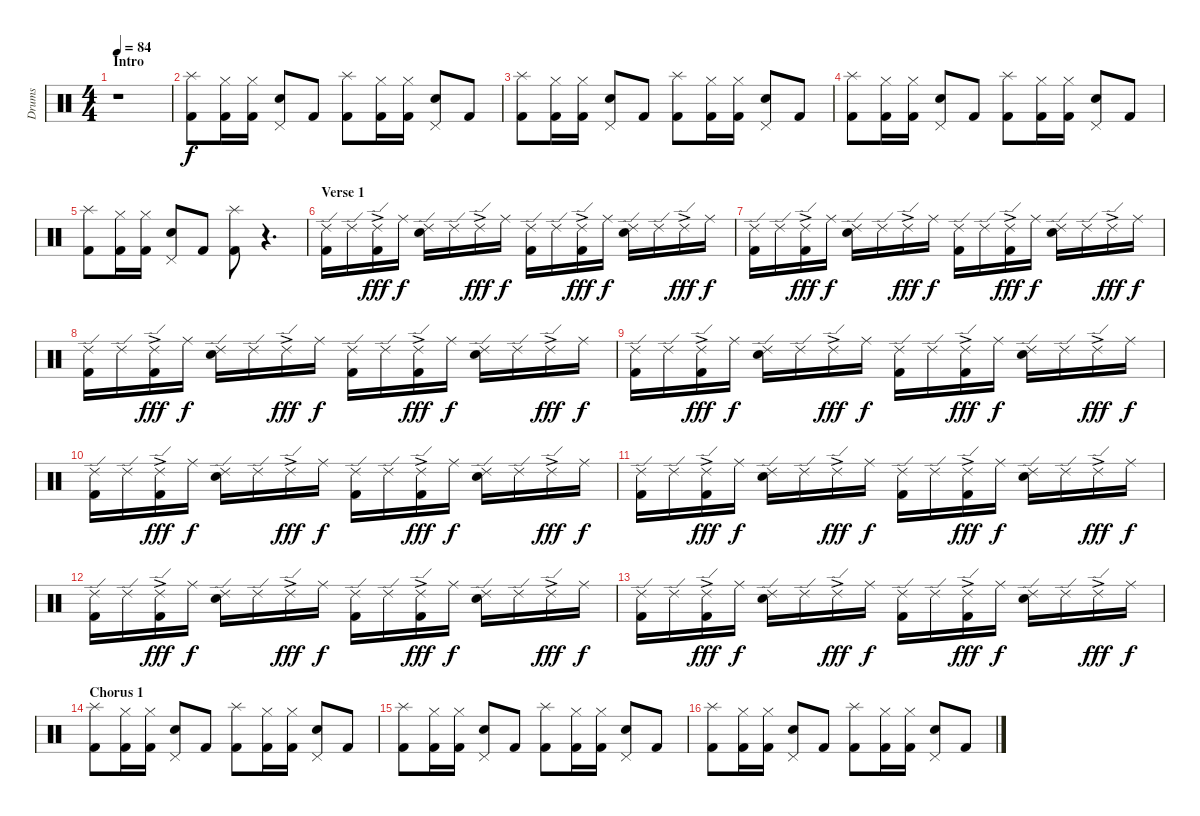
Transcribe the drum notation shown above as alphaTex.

\track ("Drums" "Drums") {instrument percussion}
\staff {score}
\articulation defaults
\ts (4 4)
\section ("" "Intro")
\tempo 84
\clef neutral
\ks c
r.1{dy f} |
("Splash (hit)" "Kick (hit) 2").8 ("Hi-Hat (closed)" "Kick (hit) 2").16 ("Hi-Hat (closed)" "Kick (hit) 2").16 ("Pedal Hi-Hat (hit)" "Snare (hit) 2").8 "Kick (hit) 2".8 ("Splash (hit)" "Kick (hit) 2").8 ("Hi-Hat (closed)" "Kick (hit) 2").16 ("Hi-Hat (closed)" "Kick (hit) 2").16 ("Pedal Hi-Hat (hit)" "Snare (hit) 2").8 "Kick (hit) 2".8 |
("Splash (hit)" "Kick (hit) 2").8 ("Hi-Hat (closed)" "Kick (hit) 2").16 ("Hi-Hat (closed)" "Kick (hit) 2").16 ("Pedal Hi-Hat (hit)" "Snare (hit) 2").8 "Kick (hit) 2".8 ("Splash (hit)" "Kick (hit) 2").8 ("Hi-Hat (closed)" "Kick (hit) 2").16 ("Hi-Hat (closed)" "Kick (hit) 2").16 ("Pedal Hi-Hat (hit)" "Snare (hit) 2").8 "Kick (hit) 2".8 |
("Splash (hit)" "Kick (hit) 2").8 ("Hi-Hat (closed)" "Kick (hit) 2").16 ("Hi-Hat (closed)" "Kick (hit) 2").16 ("Pedal Hi-Hat (hit)" "Snare (hit) 2").8 "Kick (hit) 2".8 ("Splash (hit)" "Kick (hit) 2").8 ("Hi-Hat (closed)" "Kick (hit) 2").16 ("Hi-Hat (closed)" "Kick (hit) 2").16 ("Pedal Hi-Hat (hit)" "Snare (hit) 2").8 "Kick (hit) 2".8 |
("Splash (hit)" "Kick (hit) 2").8 ("Hi-Hat (closed)" "Kick (hit) 2").16 ("Hi-Hat (closed)" "Kick (hit) 2").16 ("Pedal Hi-Hat (hit)" "Snare (hit) 2").8 "Kick (hit) 2".8 ("Splash (hit)" "Kick (hit) 2").8 r.4{d} |
\section ("" "Verse 1")
("Ride (edge) 2" "Kick (hit) 2").16 "Ride (edge) 2".16 ("Ride (edge) 2"{ac} "Kick (hit) 2").16{dy fff} "Ride (middle)".16{dy f} ("Ride (edge) 2" "Snare (hit) 2").16 "Ride (edge) 2".16 "Ride (edge) 2"{ac}.16{dy fff} "Ride (middle)".16{dy f} ("Ride (edge) 2" "Kick (hit) 2").16 "Ride (edge) 2".16 ("Ride (edge) 2"{ac} "Kick (hit) 2").16{dy fff} "Ride (middle)".16{dy f} ("Ride (edge) 2" "Snare (hit) 2").16 "Ride (edge) 2".16 "Ride (edge) 2"{ac}.16{dy fff} "Ride (middle)".16{dy f} |
("Ride (edge) 2" "Kick (hit) 2").16 "Ride (edge) 2".16 ("Ride (edge) 2"{ac} "Kick (hit) 2").16{dy fff} "Ride (middle)".16{dy f} ("Ride (edge) 2" "Snare (hit) 2").16 "Ride (edge) 2".16 "Ride (edge) 2"{ac}.16{dy fff} "Ride (middle)".16{dy f} ("Ride (edge) 2" "Kick (hit) 2").16 "Ride (edge) 2".16 ("Ride (edge) 2"{ac} "Kick (hit) 2").16{dy fff} "Ride (middle)".16{dy f} ("Ride (edge) 2" "Snare (hit) 2").16 "Ride (edge) 2".16 "Ride (edge) 2"{ac}.16{dy fff} "Ride (middle)".16{dy f} |
("Ride (edge) 2" "Kick (hit) 2").16 "Ride (edge) 2".16 ("Ride (edge) 2"{ac} "Kick (hit) 2").16{dy fff} "Ride (middle)".16{dy f} ("Ride (edge) 2" "Snare (hit) 2").16 "Ride (edge) 2".16 "Ride (edge) 2"{ac}.16{dy fff} "Ride (middle)".16{dy f} ("Ride (edge) 2" "Kick (hit) 2").16 "Ride (edge) 2".16 ("Ride (edge) 2"{ac} "Kick (hit) 2").16{dy fff} "Ride (middle)".16{dy f} ("Ride (edge) 2" "Snare (hit) 2").16 "Ride (edge) 2".16 "Ride (edge) 2"{ac}.16{dy fff} "Ride (middle)".16{dy f} |
("Ride (edge) 2" "Kick (hit) 2").16 "Ride (edge) 2".16 ("Ride (edge) 2"{ac} "Kick (hit) 2").16{dy fff} "Ride (middle)".16{dy f} ("Ride (edge) 2" "Snare (hit) 2").16 "Ride (edge) 2".16 "Ride (edge) 2"{ac}.16{dy fff} "Ride (middle)".16{dy f} ("Ride (edge) 2" "Kick (hit) 2").16 "Ride (edge) 2".16 ("Ride (edge) 2"{ac} "Kick (hit) 2").16{dy fff} "Ride (middle)".16{dy f} ("Ride (edge) 2" "Snare (hit) 2").16 "Ride (edge) 2".16 "Ride (edge) 2"{ac}.16{dy fff} "Ride (middle)".16{dy f} |
("Ride (edge) 2" "Kick (hit) 2").16 "Ride (edge) 2".16 ("Ride (edge) 2"{ac} "Kick (hit) 2").16{dy fff} "Ride (middle)".16{dy f} ("Ride (edge) 2" "Snare (hit) 2").16 "Ride (edge) 2".16 "Ride (edge) 2"{ac}.16{dy fff} "Ride (middle)".16{dy f} ("Ride (edge) 2" "Kick (hit) 2").16 "Ride (edge) 2".16 ("Ride (edge) 2"{ac} "Kick (hit) 2").16{dy fff} "Ride (middle)".16{dy f} ("Ride (edge) 2" "Snare (hit) 2").16 "Ride (edge) 2".16 "Ride (edge) 2"{ac}.16{dy fff} "Ride (middle)".16{dy f} |
("Ride (edge) 2" "Kick (hit) 2").16 "Ride (edge) 2".16 ("Ride (edge) 2"{ac} "Kick (hit) 2").16{dy fff} "Ride (middle)".16{dy f} ("Ride (edge) 2" "Snare (hit) 2").16 "Ride (edge) 2".16 "Ride (edge) 2"{ac}.16{dy fff} "Ride (middle)".16{dy f} ("Ride (edge) 2" "Kick (hit) 2").16 "Ride (edge) 2".16 ("Ride (edge) 2"{ac} "Kick (hit) 2").16{dy fff} "Ride (middle)".16{dy f} ("Ride (edge) 2" "Snare (hit) 2").16 "Ride (edge) 2".16 "Ride (edge) 2"{ac}.16{dy fff} "Ride (middle)".16{dy f} |
("Ride (edge) 2" "Kick (hit) 2").16 "Ride (edge) 2".16 ("Ride (edge) 2"{ac} "Kick (hit) 2").16{dy fff} "Ride (middle)".16{dy f} ("Ride (edge) 2" "Snare (hit) 2").16 "Ride (edge) 2".16 "Ride (edge) 2"{ac}.16{dy fff} "Ride (middle)".16{dy f} ("Ride (edge) 2" "Kick (hit) 2").16 "Ride (edge) 2".16 ("Ride (edge) 2"{ac} "Kick (hit) 2").16{dy fff} "Ride (middle)".16{dy f} ("Ride (edge) 2" "Snare (hit) 2").16 "Ride (edge) 2".16 "Ride (edge) 2"{ac}.16{dy fff} "Ride (middle)".16{dy f} |
("Ride (edge) 2" "Kick (hit) 2").16 "Ride (edge) 2".16 ("Ride (edge) 2"{ac} "Kick (hit) 2").16{dy fff} "Ride (middle)".16{dy f} ("Ride (edge) 2" "Snare (hit) 2").16 "Ride (edge) 2".16 "Ride (edge) 2"{ac}.16{dy fff} "Ride (middle)".16{dy f} ("Ride (edge) 2" "Kick (hit) 2").16 "Ride (edge) 2".16 ("Ride (edge) 2"{ac} "Kick (hit) 2").16{dy fff} "Ride (middle)".16{dy f} ("Ride (edge) 2" "Snare (hit) 2").16 "Ride (edge) 2".16 "Ride (edge) 2"{ac}.16{dy fff} "Ride (middle)".16{dy f} |
\section ("" "Chorus 1")
("Splash (hit)" "Kick (hit) 2").8 ("Hi-Hat (closed)" "Kick (hit) 2").16 ("Hi-Hat (closed)" "Kick (hit) 2").16 ("Pedal Hi-Hat (hit)" "Snare (hit) 2").8 "Kick (hit) 2".8 ("Splash (hit)" "Kick (hit) 2").8 ("Hi-Hat (closed)" "Kick (hit) 2").16 ("Hi-Hat (closed)" "Kick (hit) 2").16 ("Pedal Hi-Hat (hit)" "Snare (hit) 2").8 "Kick (hit) 2".8 |
("Splash (hit)" "Kick (hit) 2").8 ("Hi-Hat (closed)" "Kick (hit) 2").16 ("Hi-Hat (closed)" "Kick (hit) 2").16 ("Pedal Hi-Hat (hit)" "Snare (hit) 2").8 "Kick (hit) 2".8 ("Splash (hit)" "Kick (hit) 2").8 ("Hi-Hat (closed)" "Kick (hit) 2").16 ("Hi-Hat (closed)" "Kick (hit) 2").16 ("Pedal Hi-Hat (hit)" "Snare (hit) 2").8 "Kick (hit) 2".8 |
("Splash (hit)" "Kick (hit) 2").8 ("Hi-Hat (closed)" "Kick (hit) 2").16 ("Hi-Hat (closed)" "Kick (hit) 2").16 ("Pedal Hi-Hat (hit)" "Snare (hit) 2").8 "Kick (hit) 2".8 ("Splash (hit)" "Kick (hit) 2").8 ("Hi-Hat (closed)" "Kick (hit) 2").16 ("Hi-Hat (closed)" "Kick (hit) 2").16 ("Pedal Hi-Hat (hit)" "Snare (hit) 2").8 "Kick (hit) 2".8
